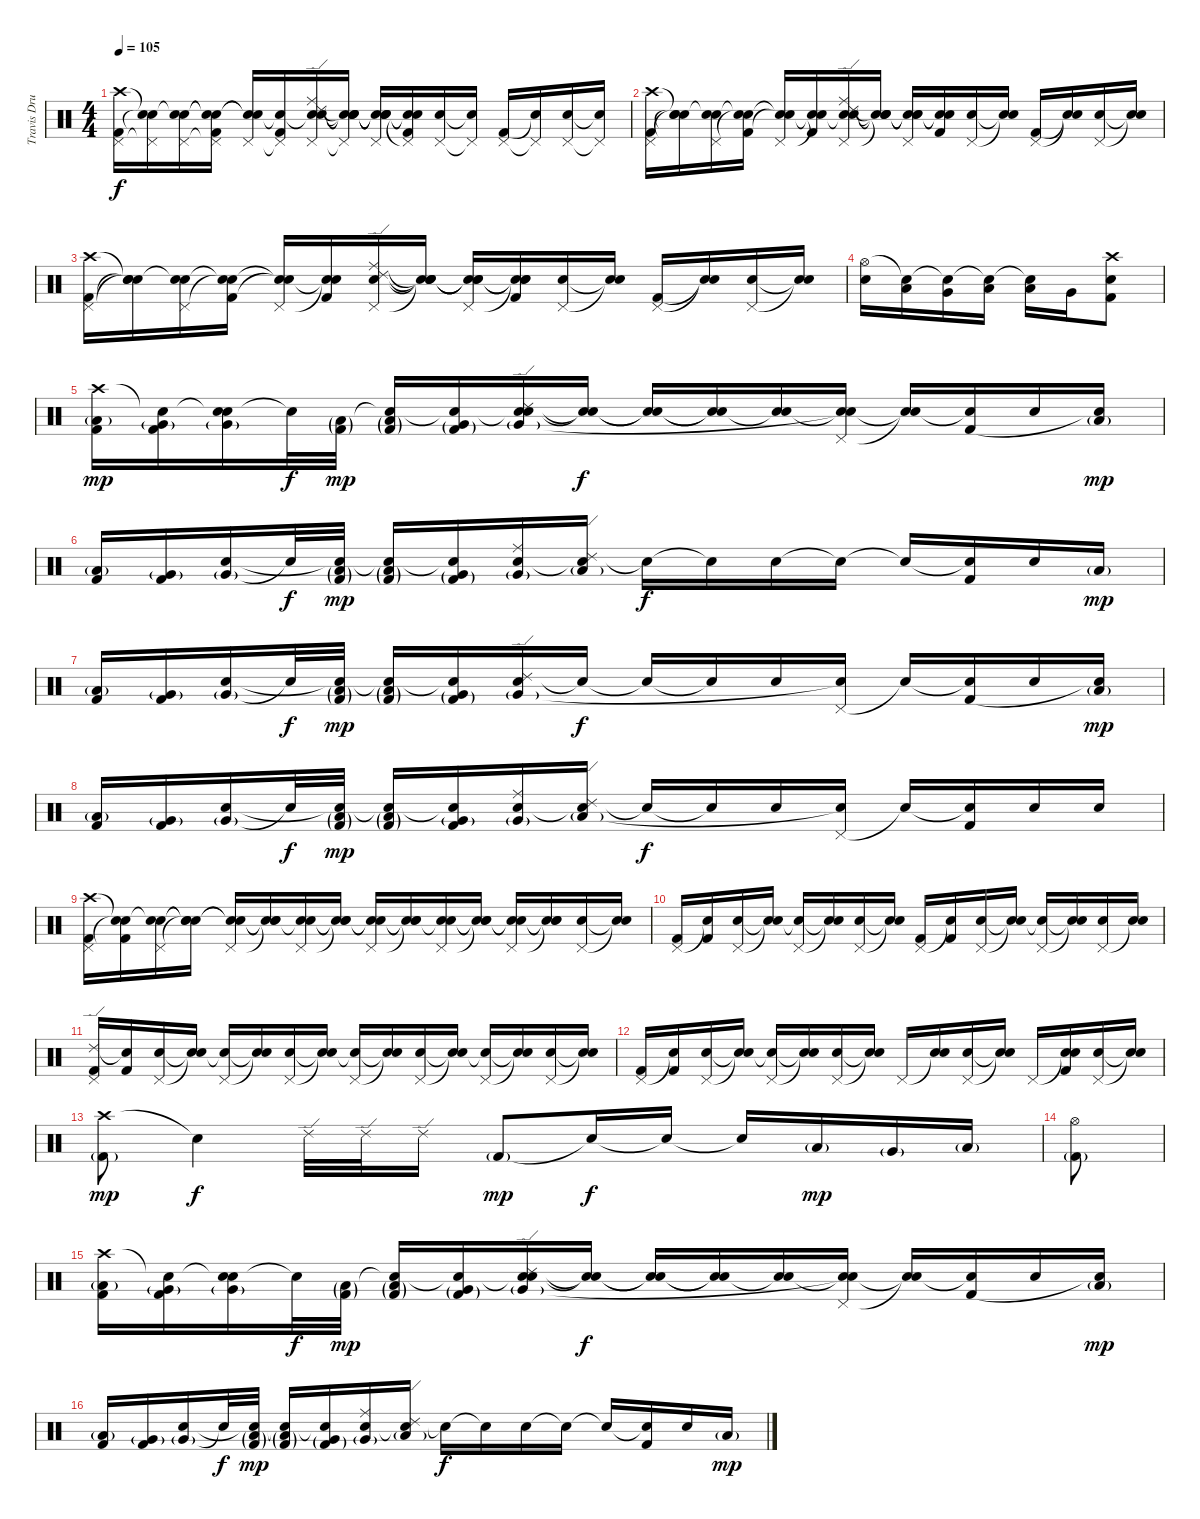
\track ("Travis Drums" "Travis Dru") {instrument percussion}
\staff {score}
\articulation defaults
\ts (4 4)
\tempo 105
\clef neutral
\ks c
("Crash high (hit)" "Pedal Hi-Hat (hit)" "Kick (hit) 2").16{dy f} ("Snare (hit)"{t} "Pedal Hi-Hat (hit)"{t} "Snare (hit)"{t}).16 ("Snare (hit)"{t} "Pedal Hi-Hat (hit)" "Electric Snare (hit)").16 ("Snare (hit)"{t} "Pedal Hi-Hat (hit)"{t} "Electric Snare (hit)"{t} "Kick (hit) 2").16 ("Snare (hit)"{t} "Pedal Hi-Hat (hit)" "Snare (hit)"{t}).16 ("Snare (hit)"{t} "Pedal Hi-Hat (hit)"{t} "Kick (hit) 2").16 ("Snare (hit)"{t} "Ride (middle)" "Ride (edge) 2" "Pedal Hi-Hat (hit)" "Electric Snare (hit)").16 ("Snare (hit)"{t} "Snare (hit)"{t} "Snare (hit)"{t} "Pedal Hi-Hat (hit)"{t} "Snare (hit)"{t}).16 ("Snare (hit)"{t} "Snare (hit)"{t} "Snare (hit)"{t} "Pedal Hi-Hat (hit)" "Snare (hit)"{t}).16 ("Snare (hit)"{t} "Snare (hit)"{t} "Pedal Hi-Hat (hit)"{t} "Kick (hit) 2").16 ("Pedal Hi-Hat (hit)" "Electric Snare (hit)").16 ("Pedal Hi-Hat (hit)"{t} "Snare (hit)"{t}).16 ("Pedal Hi-Hat (hit)" "Kick (hit) 2").16 ("Pedal Hi-Hat (hit)"{t} "Snare (hit)"{t}).16 ("Pedal Hi-Hat (hit)" "Electric Snare (hit)").16 ("Pedal Hi-Hat (hit)"{t} "Snare (hit)"{t}).16 |
("Crash high (hit)" "Pedal Hi-Hat (hit)" "Kick (hit) 2").16 ("Snare (hit)"{t} "Snare (hit)"{t} "Snare (hit)"{t}).16 ("Snare (hit)"{t} "Pedal Hi-Hat (hit)" "Electric Snare (hit)").16 ("Snare (hit)"{t} "Snare (hit)"{t} "Kick (hit) 2").16 ("Snare (hit)"{t} "Pedal Hi-Hat (hit)" "Snare (hit)"{t}).16 ("Snare (hit)"{t} "Snare (hit)"{t} "Kick (hit) 2").16 ("Snare (hit)"{t} "Ride (middle)" "Ride (edge) 2" "Pedal Hi-Hat (hit)" "Electric Snare (hit)").16 ("Snare (hit)"{t} "Snare (hit)"{t} "Snare (hit)"{t} "Snare (hit)"{t}).16 ("Snare (hit)"{t} "Snare (hit)"{t} "Pedal Hi-Hat (hit)" "Snare (hit)"{t}).16 ("Snare (hit)"{t} "Snare (hit)"{t} "Kick (hit) 2").16 ("Pedal Hi-Hat (hit)" "Electric Snare (hit)").16 ("Snare (hit)"{t} "Snare (hit)"{t}).16 ("Pedal Hi-Hat (hit)" "Kick (hit) 2").16 ("Snare (hit)"{t} "Snare (hit)"{t}).16 ("Pedal Hi-Hat (hit)" "Electric Snare (hit)").16 ("Snare (hit)"{t} "Snare (hit)"{t}).16 |
("Crash high (hit)" "Pedal Hi-Hat (hit)" "Kick (hit) 2").16 ("Snare (hit)"{t} "Snare (hit)"{t} "Snare (hit)"{t}).16 ("Snare (hit)"{t} "Pedal Hi-Hat (hit)" "Electric Snare (hit)").16 ("Snare (hit)"{t} "Snare (hit)"{t} "Kick (hit) 2").16 ("Snare (hit)"{t} "Pedal Hi-Hat (hit)" "Snare (hit)"{t}).16 ("Snare (hit)"{t} "Snare (hit)"{t} "Kick (hit) 2").16 ("Ride (middle)" "Ride (edge) 2" "Pedal Hi-Hat (hit)" "Electric Snare (hit)").16 ("Snare (hit)"{t} "Snare (hit)"{t} "Snare (hit)"{t} "Snare (hit)"{t}).16 ("Snare (hit)"{t} "Snare (hit)"{t} "Pedal Hi-Hat (hit)" "Snare (hit)"{t}).16 ("Snare (hit)"{t} "Snare (hit)"{t} "Snare (hit)"{t} "Kick (hit) 2").16 ("Pedal Hi-Hat (hit)" "Electric Snare (hit)").16 ("Snare (hit)"{t} "Snare (hit)"{t}).16 ("Pedal Hi-Hat (hit)" "Kick (hit) 2").16 ("Snare (hit)"{t} "Snare (hit)"{t}).16 ("Pedal Hi-Hat (hit)" "Electric Snare (hit)").16 ("Snare (hit)"{t} "Snare (hit)"{t}).16 |
("Hi-Hat (open)" "Electric Snare (hit)").16 ("Snare (hit)"{t} "Low Tom (hit)").16 ("Snare (hit)"{t} "Very Low Tom (hit)").16 ("Snare (hit)"{t} "Low Floor Tom (hit)").16 ("Snare (hit)"{t} "Low Tom (hit)").16 "Very Low Tom (hit)".16 ("Crash high (hit)" "Electric Snare (hit)" "Kick (hit) 2").8 |
("Crash high (hit)" "Low Tom (hit)"{g} "Kick (hit) 2").16{dy mp} ("Snare (hit)"{t} "Very Low Tom (hit)"{g} "Kick (hit) 2").16 ("Snare (hit)"{t} "Very Low Tom (hit)"{g} "Electric Snare (hit)").16 "Snare (hit)"{t}.32{dy f} ("Low Tom (hit)"{g} "Kick (hit) 2"{g}).32{dy mp} ("Snare (hit)"{t} "Low Tom (hit)"{g} "Kick (hit) 2"{g}).16 ("Snare (hit)"{t} "Very Low Tom (hit)"{g} "Kick (hit) 2"{g}).16 ("Snare (hit)"{t} "Ride (edge) 2" "Very Low Tom (hit)"{g} "Electric Snare (hit)").16 ("Snare (hit)"{t} "Snare (hit)"{t}).16{dy f} ("Snare (hit)"{t} "Electric Snare (hit)"{t}).16 ("Snare (hit)"{t} "Snare (hit)"{t}).16 ("Snare (hit)"{t} "Electric Snare (hit)").16 ("Snare (hit)"{t} "Pedal Hi-Hat (hit)" "Snare (hit)"{t}).16 ("Snare (hit)"{t} "Snare (hit)"{t}).16 ("Snare (hit)"{t} "Kick (hit) 2").16 "Electric Snare (hit)".16 ("Low Tom (hit)"{g} "Snare (hit)"{t}).16{dy mp} |
("Low Tom (hit)"{g} "Kick (hit) 2").16 ("Very Low Tom (hit)"{g} "Kick (hit) 2").16 ("Very Low Tom (hit)"{g} "Electric Snare (hit)").16 "Snare (hit)"{t}.32{dy f} ("Low Tom (hit)"{g} "Snare (hit)"{t} "Kick (hit) 2"{g}).32{dy mp} ("Low Tom (hit)"{g} "Snare (hit)"{t} "Kick (hit) 2"{g}).16 ("Very Low Tom (hit)"{g} "Snare (hit)"{t} "Kick (hit) 2"{g}).16 ("Ride (middle)" "Very Low Tom (hit)"{g} "Electric Snare (hit)").16 ("Ride (edge) 2" "Low Floor Tom (hit)"{g} "Snare (hit)"{t}).16 "Snare (hit)"{t}.16{dy f} "Snare (hit)"{t}.16 "Electric Snare (hit)".16 "Snare (hit)"{t}.16 "Snare (hit)"{t}.16 ("Snare (hit)"{t} "Kick (hit) 2").16 "Electric Snare (hit)".16 "Low Tom (hit)"{g}.16{dy mp} |
("Low Tom (hit)"{g} "Kick (hit) 2").16 ("Very Low Tom (hit)"{g} "Kick (hit) 2").16 ("Very Low Tom (hit)"{g} "Electric Snare (hit)").16 "Snare (hit)"{t}.32{dy f} ("Low Tom (hit)"{g} "Snare (hit)"{t} "Kick (hit) 2"{g}).32{dy mp} ("Low Tom (hit)"{g} "Snare (hit)"{t} "Kick (hit) 2"{g}).16 ("Very Low Tom (hit)"{g} "Snare (hit)"{t} "Kick (hit) 2"{g}).16 ("Ride (edge) 2" "Very Low Tom (hit)"{g} "Electric Snare (hit)").16 "Snare (hit)"{t}.16{dy f} "Snare (hit)"{t}.16 "Snare (hit)"{t}.16 "Electric Snare (hit)".16 ("Pedal Hi-Hat (hit)" "Snare (hit)"{t}).16 "Snare (hit)"{t}.16 ("Snare (hit)"{t} "Kick (hit) 2").16 "Electric Snare (hit)".16 ("Low Tom (hit)"{g} "Snare (hit)"{t}).16{dy mp} |
("Low Tom (hit)"{g} "Kick (hit) 2").16 ("Very Low Tom (hit)"{g} "Kick (hit) 2").16 ("Very Low Tom (hit)"{g} "Electric Snare (hit)").16 "Snare (hit)"{t}.32{dy f} ("Low Tom (hit)"{g} "Snare (hit)"{t} "Kick (hit) 2"{g}).32{dy mp} ("Low Tom (hit)"{g} "Snare (hit)"{t} "Kick (hit) 2"{g}).16 ("Very Low Tom (hit)"{g} "Snare (hit)"{t} "Kick (hit) 2").16 ("Ride (middle)" "Very Low Tom (hit)"{g} "Electric Snare (hit)").16 ("Ride (edge) 2" "Low Floor Tom (hit)"{g} "Snare (hit)"{t}).16 "Electric Snare (hit)"{t}.16{dy f} "Snare (hit)"{t}.16 "Electric Snare (hit)".16 ("Pedal Hi-Hat (hit)" "Electric Snare (hit)"{t}).16 "Snare (hit)"{t}.16 ("Snare (hit)"{t} "Kick (hit) 2").16 "Electric Snare (hit)".16 "Electric Snare (hit)".16 |
("Crash high (hit)" "Pedal Hi-Hat (hit)" "Kick (hit) 2").16 ("Snare (hit)"{t} "Snare (hit)"{t} "Kick (hit) 2").16 ("Snare (hit)"{t} "Pedal Hi-Hat (hit)" "Electric Snare (hit)").16 ("Snare (hit)"{t} "Snare (hit)"{t} "Snare (hit)"{t}).16 ("Snare (hit)"{t} "Pedal Hi-Hat (hit)" "Snare (hit)"{t}).16 ("Snare (hit)"{t} "Snare (hit)"{t} "Snare (hit)"{t}).16 ("Snare (hit)"{t} "Pedal Hi-Hat (hit)" "Electric Snare (hit)").16 ("Snare (hit)"{t} "Snare (hit)"{t} "Snare (hit)"{t}).16 ("Snare (hit)"{t} "Pedal Hi-Hat (hit)" "Snare (hit)"{t}).16 ("Snare (hit)"{t} "Snare (hit)"{t} "Snare (hit)"{t}).16 ("Snare (hit)"{t} "Pedal Hi-Hat (hit)" "Electric Snare (hit)").16 ("Snare (hit)"{t} "Snare (hit)"{t} "Snare (hit)"{t}).16 ("Snare (hit)"{t} "Pedal Hi-Hat (hit)" "Snare (hit)"{t}).16 ("Snare (hit)"{t} "Snare (hit)"{t} "Snare (hit)"{t}).16 ("Pedal Hi-Hat (hit)" "Electric Snare (hit)").16 ("Snare (hit)"{t} "Snare (hit)"{t}).16 |
("Pedal Hi-Hat (hit)" "Kick (hit) 2").16 ("Snare (hit)"{t} "Kick (hit) 2").16 ("Pedal Hi-Hat (hit)" "Electric Snare (hit)").16 ("Snare (hit)"{t} "Snare (hit)"{t}).16 ("Pedal Hi-Hat (hit)" "Snare (hit)"{t}).16 ("Snare (hit)"{t} "Snare (hit)"{t}).16 ("Pedal Hi-Hat (hit)" "Electric Snare (hit)").16 ("Snare (hit)"{t} "Snare (hit)"{t}).16 ("Pedal Hi-Hat (hit)" "Kick (hit) 2").16 ("Snare (hit)"{t} "Kick (hit) 2").16 ("Pedal Hi-Hat (hit)" "Electric Snare (hit)").16 ("Snare (hit)"{t} "Snare (hit)"{t}).16 ("Pedal Hi-Hat (hit)" "Snare (hit)"{t}).16 ("Snare (hit)"{t} "Snare (hit)"{t}).16 ("Pedal Hi-Hat (hit)" "Electric Snare (hit)").16 ("Snare (hit)"{t} "Electric Snare (hit)").16 |
("Ride (edge) 2" "Pedal Hi-Hat (hit)" "Kick (hit) 2").16 ("Snare (hit)"{t} "Kick (hit) 2").16 ("Pedal Hi-Hat (hit)" "Electric Snare (hit)").16 ("Snare (hit)"{t} "Snare (hit)"{t}).16 ("Pedal Hi-Hat (hit)" "Snare (hit)"{t}).16 ("Snare (hit)"{t} "Snare (hit)"{t}).16 ("Pedal Hi-Hat (hit)" "Electric Snare (hit)").16 ("Snare (hit)"{t} "Snare (hit)"{t}).16 ("Pedal Hi-Hat (hit)" "Snare (hit)"{t}).16 ("Snare (hit)"{t} "Snare (hit)"{t}).16 ("Pedal Hi-Hat (hit)" "Electric Snare (hit)").16 ("Snare (hit)"{t} "Snare (hit)"{t}).16 ("Pedal Hi-Hat (hit)" "Snare (hit)"{t}).16 ("Snare (hit)"{t} "Snare (hit)"{t}).16 ("Pedal Hi-Hat (hit)" "Electric Snare (hit)").16 ("Snare (hit)"{t} "Snare (hit)"{t}).16 |
("Pedal Hi-Hat (hit)" "Kick (hit) 2").16 ("Snare (hit)"{t} "Kick (hit) 2").16 ("Pedal Hi-Hat (hit)" "Electric Snare (hit)").16 ("Snare (hit)"{t} "Snare (hit)"{t}).16 ("Pedal Hi-Hat (hit)" "Snare (hit)"{t}).16 ("Snare (hit)"{t} "Snare (hit)"{t}).16 ("Pedal Hi-Hat (hit)" "Electric Snare (hit)").16 ("Snare (hit)"{t} "Electric Snare (hit)"{t}).16 "Pedal Hi-Hat (hit)".16 ("Snare (hit)"{t} "Electric Snare (hit)").16 ("Pedal Hi-Hat (hit)" "Electric Snare (hit)").16 ("Snare (hit)"{t} "Electric Snare (hit)"{t}).16 "Pedal Hi-Hat (hit)".16 ("Snare (hit)"{t} "Electric Snare (hit)" "Kick (hit) 2").16 ("Pedal Hi-Hat (hit)" "Electric Snare (hit)").16 ("Snare (hit)"{t} "Electric Snare (hit)"{t}).16 |
("Crash high (hit)" "Kick (hit) 2"{g}).8{dy mp} "Snare (hit)"{t}.4{dy f} "Ride (edge) 2".32 "Ride (edge) 2".32 "Ride (edge) 2".16 "Kick (hit) 2"{g}.8{dy mp} "Snare (hit)"{t}.16{dy f} "Snare (hit)"{t}.16 "Snare (hit)"{t}.16 "Low Tom (hit)"{g}.16{dy mp} "Very Low Tom (hit)"{g}.16 "Low Floor Tom (hit)"{g}.16 |
("Hi-Hat (open)" "Kick (hit) 2"{g}).8 |
("Crash high (hit)" "Low Tom (hit)"{g} "Kick (hit) 2").16 ("Snare (hit)"{t} "Very Low Tom (hit)"{g} "Kick (hit) 2").16 ("Snare (hit)"{t} "Very Low Tom (hit)"{g} "Electric Snare (hit)").16 "Snare (hit)"{t}.32{dy f} ("Low Tom (hit)"{g} "Kick (hit) 2"{g}).32{dy mp} ("Snare (hit)"{t} "Low Tom (hit)"{g} "Kick (hit) 2"{g}).16 ("Snare (hit)"{t} "Very Low Tom (hit)"{g} "Kick (hit) 2"{g}).16 ("Snare (hit)"{t} "Ride (edge) 2" "Very Low Tom (hit)"{g} "Electric Snare (hit)").16 ("Snare (hit)"{t} "Snare (hit)"{t}).16{dy f} ("Snare (hit)"{t} "Electric Snare (hit)"{t}).16 ("Snare (hit)"{t} "Snare (hit)"{t}).16 ("Snare (hit)"{t} "Electric Snare (hit)").16 ("Snare (hit)"{t} "Pedal Hi-Hat (hit)" "Snare (hit)"{t}).16 ("Snare (hit)"{t} "Snare (hit)"{t}).16 ("Snare (hit)"{t} "Kick (hit) 2").16 "Electric Snare (hit)".16 ("Low Tom (hit)"{g} "Snare (hit)"{t}).16{dy mp} |
("Low Tom (hit)"{g} "Kick (hit) 2").16 ("Very Low Tom (hit)"{g} "Kick (hit) 2").16 ("Very Low Tom (hit)"{g} "Electric Snare (hit)").16 "Snare (hit)"{t}.32{dy f} ("Low Tom (hit)"{g} "Snare (hit)"{t} "Kick (hit) 2"{g}).32{dy mp} ("Low Tom (hit)"{g} "Snare (hit)"{t} "Kick (hit) 2"{g}).16 ("Very Low Tom (hit)"{g} "Snare (hit)"{t} "Kick (hit) 2"{g}).16 ("Ride (middle)" "Very Low Tom (hit)"{g} "Electric Snare (hit)").16 ("Ride (edge) 2" "Low Floor Tom (hit)"{g} "Snare (hit)"{t}).16 "Snare (hit)"{t}.16{dy f} "Snare (hit)"{t}.16 "Electric Snare (hit)".16 "Snare (hit)"{t}.16 "Snare (hit)"{t}.16 ("Snare (hit)"{t} "Kick (hit) 2").16 "Electric Snare (hit)".16 "Low Tom (hit)"{g}.16{dy mp}
